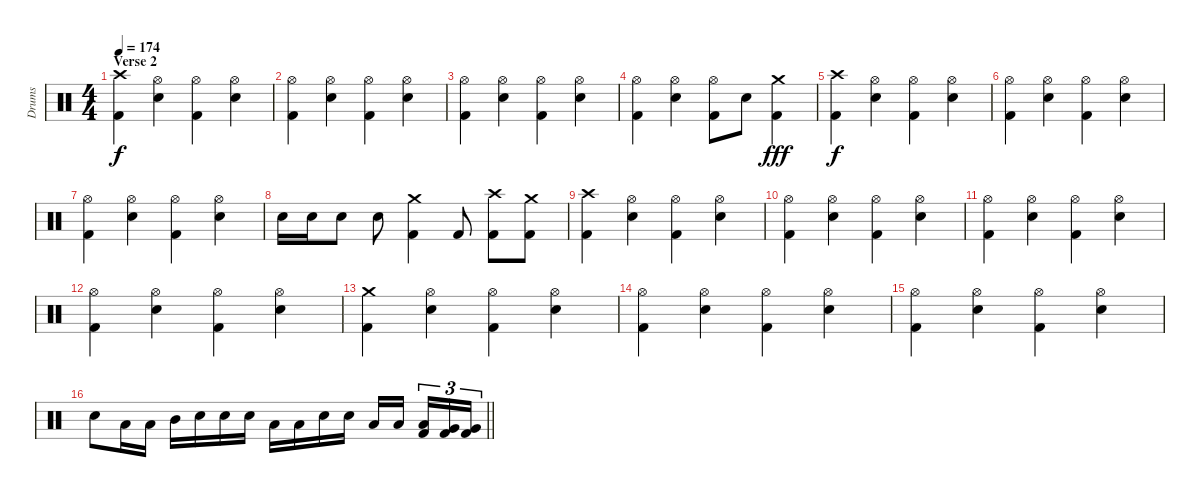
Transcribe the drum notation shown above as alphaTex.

\track ("Drums" "Drums") {instrument percussion}
\staff {score}
\articulation defaults
\ts (4 4)
\section ("" "Verse 2")
\tempo 174
\clef neutral
\ks c
("Crash high (hit)" "Kick (hit) 2").4{dy f} ("Hi-Hat (open)" "Electric Snare (hit)").4 ("Hi-Hat (open)" "Kick (hit) 2").4 ("Hi-Hat (open)" "Electric Snare (hit)").4 |
("Hi-Hat (open)" "Kick (hit) 2").4 ("Hi-Hat (open)" "Electric Snare (hit)").4 ("Hi-Hat (open)" "Kick (hit) 2").4 ("Hi-Hat (open)" "Electric Snare (hit)").4 |
("Hi-Hat (open)" "Kick (hit) 2").4 ("Hi-Hat (open)" "Electric Snare (hit)").4 ("Hi-Hat (open)" "Kick (hit) 2").4 ("Hi-Hat (open)" "Electric Snare (hit)").4 |
("Hi-Hat (open)" "Kick (hit) 2").4 ("Hi-Hat (open)" "Electric Snare (hit)").4 ("Hi-Hat (open)" "Kick (hit) 2").8 "Electric Snare (hit)".8 ("Crash medium (hit)" "Kick (hit) 2").4{dy fff} |
("Crash high (hit)" "Kick (hit) 2").4{dy f} ("Hi-Hat (open)" "Electric Snare (hit)").4 ("Hi-Hat (open)" "Kick (hit) 2").4 ("Hi-Hat (open)" "Electric Snare (hit)").4 |
("Hi-Hat (open)" "Kick (hit) 2").4 ("Hi-Hat (open)" "Electric Snare (hit)").4 ("Hi-Hat (open)" "Kick (hit) 2").4 ("Hi-Hat (open)" "Electric Snare (hit)").4 |
("Hi-Hat (open)" "Kick (hit) 2").4 ("Hi-Hat (open)" "Electric Snare (hit)").4 ("Hi-Hat (open)" "Kick (hit) 2").4 ("Hi-Hat (open)" "Electric Snare (hit)").4 |
"Electric Snare (hit)".16 "Electric Snare (hit)".16 "Electric Snare (hit)".8 "Electric Snare (hit)".8 ("Crash medium (hit)" "Kick (hit) 2").4 "Kick (hit) 2".8 ("Crash high (hit)" "Kick (hit) 2").8 ("Crash medium (hit)" "Kick (hit) 2").8 |
("Crash high (hit)" "Kick (hit) 2").4 ("Hi-Hat (open)" "Electric Snare (hit)").4 ("Hi-Hat (open)" "Kick (hit) 2").4 ("Hi-Hat (open)" "Electric Snare (hit)").4 |
("Hi-Hat (open)" "Kick (hit) 2").4 ("Hi-Hat (open)" "Electric Snare (hit)").4 ("Hi-Hat (open)" "Kick (hit) 2").4 ("Hi-Hat (open)" "Electric Snare (hit)").4 |
("Hi-Hat (open)" "Kick (hit) 2").4 ("Hi-Hat (open)" "Electric Snare (hit)").4 ("Hi-Hat (open)" "Kick (hit) 2").4 ("Hi-Hat (open)" "Electric Snare (hit)").4 |
("Hi-Hat (open)" "Kick (hit) 2").4 ("Hi-Hat (open)" "Electric Snare (hit)").4 ("Hi-Hat (open)" "Kick (hit) 2").4 ("Hi-Hat (open)" "Electric Snare (hit)").4 |
("Crash medium (hit)" "Kick (hit) 2").4 ("Hi-Hat (open)" "Electric Snare (hit)").4 ("Hi-Hat (open)" "Kick (hit) 2").4 ("Hi-Hat (open)" "Electric Snare (hit)").4 |
("Hi-Hat (open)" "Kick (hit) 2").4 ("Hi-Hat (open)" "Electric Snare (hit)").4 ("Hi-Hat (open)" "Kick (hit) 2").4 ("Hi-Hat (open)" "Electric Snare (hit)").4 |
("Hi-Hat (open)" "Kick (hit) 2").4 ("Hi-Hat (open)" "Electric Snare (hit)").4 ("Hi-Hat (open)" "Kick (hit) 2").4 ("Hi-Hat (open)" "Electric Snare (hit)").4 |
\barLineRight lightlight "Electric Snare (hit)".8 "Low Tom (hit)".16 "Low Tom (hit)".16 "Mid Tom (hit)".16 "Electric Snare (hit)".16 "Electric Snare (hit)".16 "Electric Snare (hit)".16 "Low Tom (hit)".16 "Low Tom (hit)".16 "Electric Snare (hit)".16 "Electric Snare (hit)".16 "Low Tom (hit)".16 "Low Floor Tom (hit)".16{beam splitsecondary}
("Low Tom (hit)" "Kick (hit) 2").16{tu (3 2)} ("Very Low Tom (hit)" "Kick (hit) 2").16{tu (3 2)} ("Very Low Tom (hit)" "Kick (hit) 2").16{tu (3 2)}
